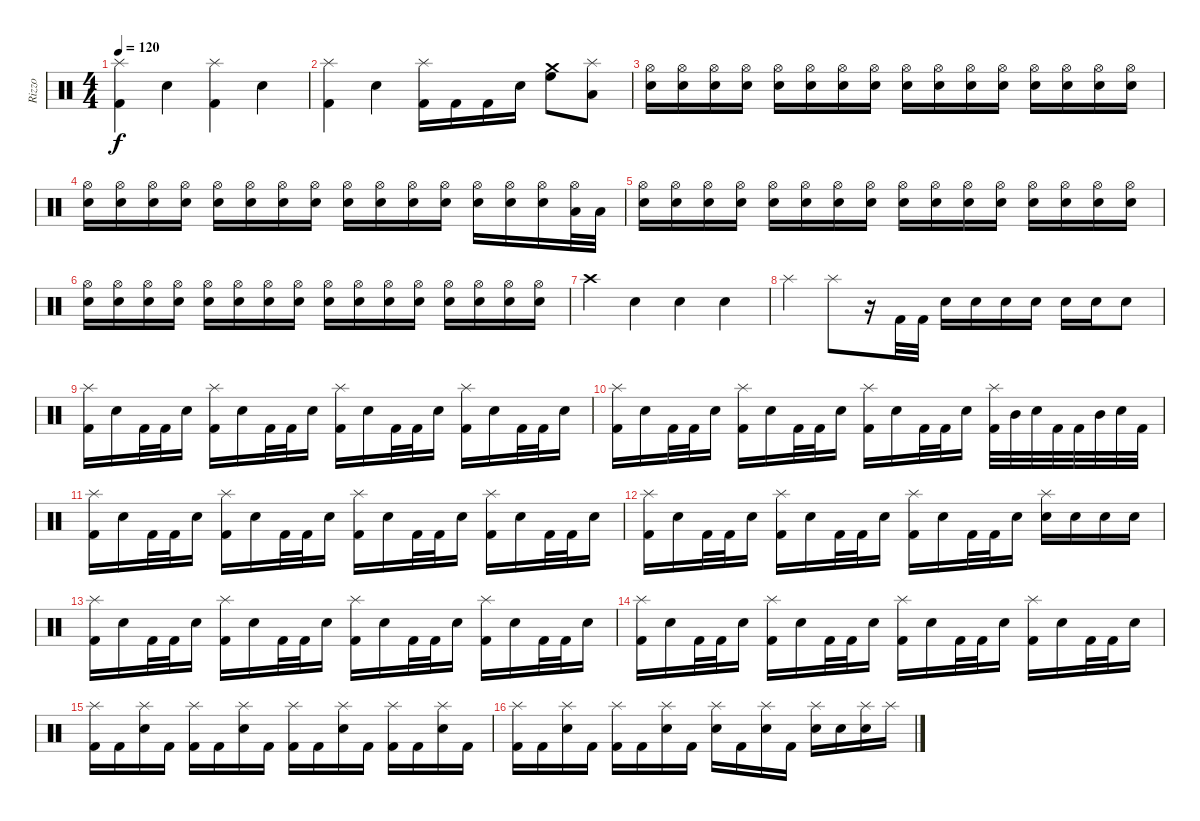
\track ("Rizzo" "Rizzo") {instrument percussion}
\staff {score}
\articulation defaults
\ts (4 4)
\tempo 120
\clef neutral
\ks c
("Splash (hit)" "Kick (hit) 2").4{dy f} "Snare (hit)"{x}.4 ("Splash (hit)" "Kick (hit) 2").4 "Snare (hit)"{x}.4 |
("Splash (hit)" "Kick (hit) 2").4 "Snare (hit)"{x}.4 ("Splash (hit)" "Kick (hit) 2").16 "Kick (hit) 2"{x}.16 "Kick (hit) 2".16 "Snare (hit) 2".16 ("High Floor Tom (hit)" "Crash medium (hit)").8 ("Low Tom (hit)" "Splash (hit)").8 |
("Snare (hit) 2" "Hi-Hat (open)").16 ("Snare (hit) 2" "Hi-Hat (open)").16 ("Snare (hit) 2" "Hi-Hat (open)").16 ("Snare (hit) 2" "Hi-Hat (open)").16 ("Snare (hit) 2" "Hi-Hat (open)").16 ("Snare (hit) 2" "Hi-Hat (open)").16 ("Snare (hit) 2" "Hi-Hat (open)").16 ("Snare (hit) 2" "Hi-Hat (open)").16 ("Snare (hit) 2" "Hi-Hat (open)").16 ("Snare (hit) 2" "Hi-Hat (open)").16 ("Snare (hit) 2" "Hi-Hat (open)").16 ("Snare (hit) 2" "Hi-Hat (open)").16 ("Snare (hit) 2" "Hi-Hat (open)").16 ("Snare (hit) 2" "Hi-Hat (open)").16 ("Snare (hit) 2" "Hi-Hat (open)").16 ("Snare (hit) 2" "Hi-Hat (open)").16 |
("Snare (hit) 2" "Hi-Hat (open)").16 ("Snare (hit) 2" "Hi-Hat (open)").16 ("Snare (hit) 2" "Hi-Hat (open)").16 ("Snare (hit) 2" "Hi-Hat (open)").16 ("Snare (hit) 2" "Hi-Hat (open)").16 ("Snare (hit) 2" "Hi-Hat (open)").16 ("Snare (hit) 2" "Hi-Hat (open)").16 ("Snare (hit) 2" "Hi-Hat (open)").16 ("Snare (hit) 2" "Hi-Hat (open)").16 ("Snare (hit) 2" "Hi-Hat (open)").16 ("Snare (hit) 2" "Hi-Hat (open)").16 ("Snare (hit) 2" "Hi-Hat (open)").16 ("Snare (hit) 2" "Hi-Hat (open)").16 ("Snare (hit) 2" "Hi-Hat (open)").16 ("Snare (hit) 2" "Hi-Hat (open)").16 ("Low Tom (hit)" "Hi-Hat (open)").32 "Low Tom (hit)".32 |
("Snare (hit) 2" "Hi-Hat (open)").16 ("Snare (hit) 2" "Hi-Hat (open)").16 ("Snare (hit) 2" "Hi-Hat (open)").16 ("Snare (hit) 2" "Hi-Hat (open)").16 ("Snare (hit) 2" "Hi-Hat (open)").16 ("Snare (hit) 2" "Hi-Hat (open)").16 ("Snare (hit) 2" "Hi-Hat (open)").16 ("Snare (hit) 2" "Hi-Hat (open)").16 ("Snare (hit) 2" "Hi-Hat (open)").16 ("Snare (hit) 2" "Hi-Hat (open)").16 ("Snare (hit) 2" "Hi-Hat (open)").16 ("Snare (hit) 2" "Hi-Hat (open)").16 ("Snare (hit) 2" "Hi-Hat (open)").16 ("Snare (hit) 2" "Hi-Hat (open)").16 ("Snare (hit) 2" "Hi-Hat (open)").16 ("Snare (hit) 2" "Hi-Hat (open)").16 |
("Snare (hit) 2" "Hi-Hat (open)").16 ("Snare (hit) 2" "Hi-Hat (open)").16 ("Snare (hit) 2" "Hi-Hat (open)").16 ("Snare (hit) 2" "Hi-Hat (open)").16 ("Snare (hit) 2" "Hi-Hat (open)").16 ("Snare (hit) 2" "Hi-Hat (open)").16 ("Snare (hit) 2" "Hi-Hat (open)").16 ("Snare (hit) 2" "Hi-Hat (open)").16 ("Snare (hit) 2" "Hi-Hat (open)").16 ("Snare (hit) 2" "Hi-Hat (open)").16 ("Snare (hit) 2" "Hi-Hat (open)").16 ("Snare (hit) 2" "Hi-Hat (open)").16 ("Snare (hit) 2" "Hi-Hat (open)").16 ("Snare (hit) 2" "Hi-Hat (open)").16 ("Snare (hit) 2" "Hi-Hat (open)").16 ("Snare (hit) 2" "Hi-Hat (open)").16 |
"Crash high (hit)".4 "Snare (hit)"{x}.4 "Snare (hit)"{x}.4 "Snare (hit)"{x}.4 |
"Splash (hit)".4 "Splash (hit)".8 r.16 "Kick (hit) 2".32 "Kick (hit) 2".32 "Electric Snare (hit)".16 "Electric Snare (hit)".16 "Electric Snare (hit)"{x}.16 "Electric Snare (hit)".16 "Electric Snare (hit)".16 "Electric Snare (hit)".16 "Electric Snare (hit)".8 |
("Kick (hit) 2" "Splash (hit)").16 "Electric Snare (hit)".16 "Kick (hit) 2".32 "Kick (hit) 2".32 "Electric Snare (hit)".16 ("Kick (hit) 2" "Splash (hit)").16 "Electric Snare (hit)".16 "Kick (hit) 2".32 "Kick (hit) 2".32 "Electric Snare (hit)".16 ("Kick (hit) 2" "Splash (hit)").16 "Electric Snare (hit)".16 "Kick (hit) 2".32 "Kick (hit) 2".32 "Electric Snare (hit)".16 ("Kick (hit) 2" "Splash (hit)").16 "Electric Snare (hit)".16 "Kick (hit) 2".32 "Kick (hit) 2".32 "Electric Snare (hit)".16 |
("Kick (hit) 2" "Splash (hit)").16 "Electric Snare (hit)".16 "Kick (hit) 2".32 "Kick (hit) 2".32 "Electric Snare (hit)".16 ("Kick (hit) 2" "Splash (hit)").16 "Electric Snare (hit)".16 "Kick (hit) 2".32 "Kick (hit) 2".32 "Electric Snare (hit)".16 ("Kick (hit) 2" "Splash (hit)").16 "Electric Snare (hit)".16 "Kick (hit) 2".32 "Kick (hit) 2".32 "Electric Snare (hit)".16 ("Kick (hit) 2" "Splash (hit)").32 "Mid Tom (hit)".32 "Electric Snare (hit)".32 "Kick (hit) 2".32 "Kick (hit) 2".32 "Mid Tom (hit)".32 "Electric Snare (hit)".32 "Kick (hit) 2".32 |
("Kick (hit) 2" "Splash (hit)").16 "Electric Snare (hit)".16 "Kick (hit) 2".32 "Kick (hit) 2".32 "Electric Snare (hit)".16 ("Kick (hit) 2" "Splash (hit)").16 "Electric Snare (hit)".16 "Kick (hit) 2".32 "Kick (hit) 2".32 "Electric Snare (hit)".16 ("Kick (hit) 2" "Splash (hit)").16 "Electric Snare (hit)".16 "Kick (hit) 2".32 "Kick (hit) 2".32 "Electric Snare (hit)".16 ("Kick (hit) 2" "Splash (hit)").16 "Electric Snare (hit)".16 "Kick (hit) 2".32 "Kick (hit) 2".32 "Electric Snare (hit)".16 |
("Kick (hit) 2" "Splash (hit)").16 "Electric Snare (hit)".16 "Kick (hit) 2".32 "Kick (hit) 2".32 "Electric Snare (hit)".16 ("Kick (hit) 2" "Splash (hit)").16 "Electric Snare (hit)".16 "Kick (hit) 2".32 "Kick (hit) 2".32 "Electric Snare (hit)".16 ("Kick (hit) 2" "Splash (hit)").16 "Electric Snare (hit)".16 "Kick (hit) 2".32 "Kick (hit) 2".32 "Electric Snare (hit)".16 ("Electric Snare (hit)" "Splash (hit)").16 "Electric Snare (hit)".16 "Electric Snare (hit)".16 "Electric Snare (hit)".16 |
("Kick (hit) 2" "Splash (hit)").16 "Electric Snare (hit)".16 "Kick (hit) 2".32 "Kick (hit) 2".32 "Electric Snare (hit)".16 ("Kick (hit) 2" "Splash (hit)").16 "Electric Snare (hit)".16 "Kick (hit) 2".32 "Kick (hit) 2".32 "Electric Snare (hit)".16 ("Kick (hit) 2" "Splash (hit)").16 "Electric Snare (hit)".16 "Kick (hit) 2".32 "Kick (hit) 2".32 "Electric Snare (hit)".16 ("Kick (hit) 2" "Splash (hit)").16 "Electric Snare (hit)".16 "Kick (hit) 2".32 "Kick (hit) 2".32 "Electric Snare (hit)".16 |
("Kick (hit) 2" "Splash (hit)").16 "Electric Snare (hit)".16 "Kick (hit) 2".32 "Kick (hit) 2".32 "Electric Snare (hit)".16 ("Kick (hit) 2" "Splash (hit)").16 "Electric Snare (hit)".16 "Kick (hit) 2".32 "Kick (hit) 2".32 "Electric Snare (hit)".16 ("Kick (hit) 2" "Splash (hit)").16 "Electric Snare (hit)".16 "Kick (hit) 2".32 "Kick (hit) 2".32 "Electric Snare (hit)".16 ("Kick (hit) 2" "Splash (hit)").16 "Electric Snare (hit)".16 "Kick (hit) 2".32 "Kick (hit) 2".32 "Electric Snare (hit)".16 |
("Kick (hit) 2" "Splash (hit)").16 "Kick (hit) 2".16 ("Electric Snare (hit)" "Splash (hit)").16 "Kick (hit) 2".16 ("Kick (hit) 2" "Splash (hit)").16 "Kick (hit) 2".16 ("Electric Snare (hit)" "Splash (hit)").16 "Kick (hit) 2".16 ("Kick (hit) 2" "Splash (hit)").16 "Kick (hit) 2".16 ("Electric Snare (hit)" "Splash (hit)").16 "Kick (hit) 2".16 ("Kick (hit) 2" "Splash (hit)").16 "Kick (hit) 2".16 ("Electric Snare (hit)" "Splash (hit)").16 "Kick (hit) 2".16 |
("Kick (hit) 2" "Splash (hit)").16 "Kick (hit) 2".16 ("Electric Snare (hit)" "Splash (hit)").16 "Kick (hit) 2".16 ("Kick (hit) 2" "Splash (hit)").16 "Kick (hit) 2".16 ("Electric Snare (hit)" "Splash (hit)").16 "Kick (hit) 2".16 ("Electric Snare (hit)" "Splash (hit)").16 "Kick (hit) 2"{x}.16 ("Electric Snare (hit)" "Splash (hit)").16 "Kick (hit) 2"{x}.16 ("Electric Snare (hit)" "Splash (hit)").16 "Electric Snare (hit)".16 ("Electric Snare (hit)" "Splash (hit)").16 "Splash (hit)".16
